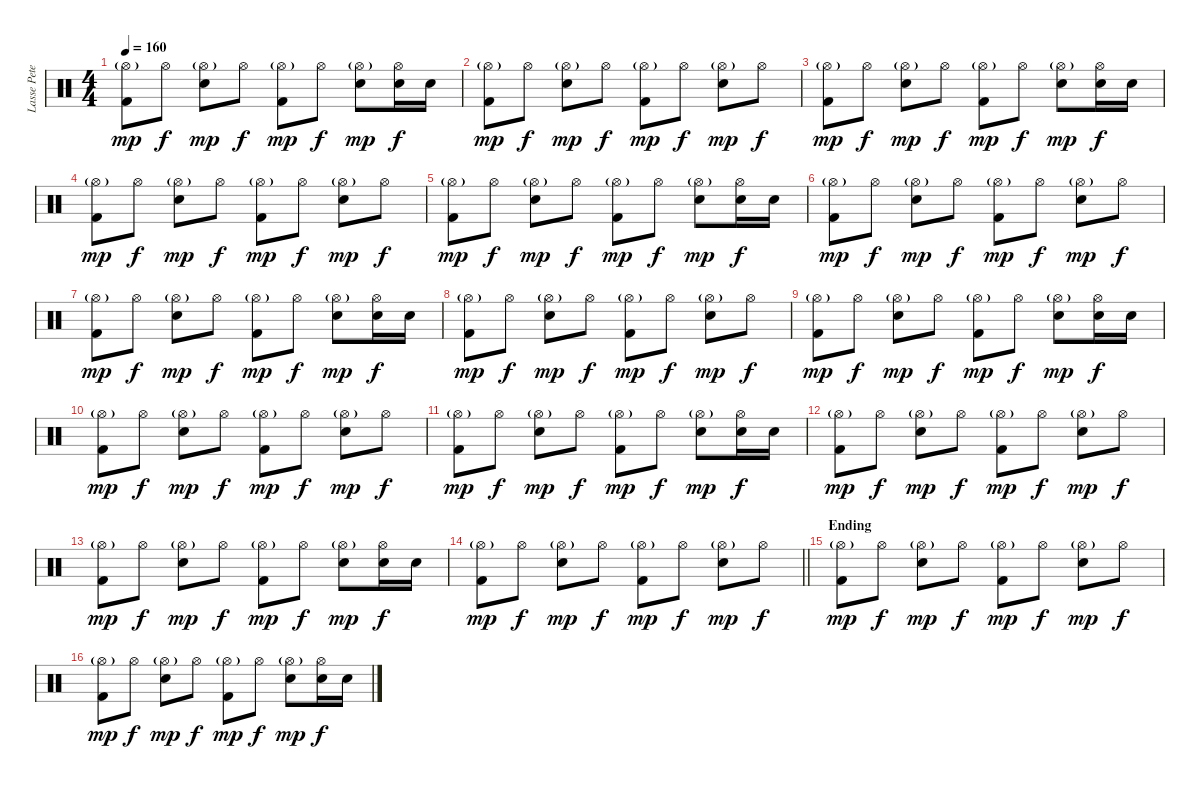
\track ("Lasse Petersen - Drums" "Lasse Pete") {instrument percussion}
\staff {score}
\articulation defaults
\ts (4 4)
\tempo 160
\clef neutral
\ks c
("Kick (hit) 2" "Hi-Hat (open)"{g}).8{dy mp} "Hi-Hat (open)".8{dy f} ("Electric Snare (hit)" "Hi-Hat (open)"{g}).8{dy mp} "Hi-Hat (open)".8{dy f} ("Kick (hit) 2" "Hi-Hat (open)"{g}).8{dy mp} "Hi-Hat (open)".8{dy f} ("Electric Snare (hit)" "Hi-Hat (open)"{g}).8{dy mp} ("Electric Snare (hit)" "Hi-Hat (open)").16{dy f} "Electric Snare (hit)".16 |
("Kick (hit) 2" "Hi-Hat (open)"{g}).8{dy mp} "Hi-Hat (open)".8{dy f} ("Electric Snare (hit)" "Hi-Hat (open)"{g}).8{dy mp} "Hi-Hat (open)".8{dy f} ("Kick (hit) 2" "Hi-Hat (open)"{g}).8{dy mp} "Hi-Hat (open)".8{dy f} ("Electric Snare (hit)" "Hi-Hat (open)"{g}).8{dy mp} "Hi-Hat (open)".8{dy f} |
("Kick (hit) 2" "Hi-Hat (open)"{g}).8{dy mp} "Hi-Hat (open)".8{dy f} ("Electric Snare (hit)" "Hi-Hat (open)"{g}).8{dy mp} "Hi-Hat (open)".8{dy f} ("Kick (hit) 2" "Hi-Hat (open)"{g}).8{dy mp} "Hi-Hat (open)".8{dy f} ("Electric Snare (hit)" "Hi-Hat (open)"{g}).8{dy mp} ("Electric Snare (hit)" "Hi-Hat (open)").16{dy f} "Electric Snare (hit)".16 |
("Kick (hit) 2" "Hi-Hat (open)"{g}).8{dy mp} "Hi-Hat (open)".8{dy f} ("Electric Snare (hit)" "Hi-Hat (open)"{g}).8{dy mp} "Hi-Hat (open)".8{dy f} ("Kick (hit) 2" "Hi-Hat (open)"{g}).8{dy mp} "Hi-Hat (open)".8{dy f} ("Electric Snare (hit)" "Hi-Hat (open)"{g}).8{dy mp} "Hi-Hat (open)".8{dy f} |
("Kick (hit) 2" "Hi-Hat (open)"{g}).8{dy mp} "Hi-Hat (open)".8{dy f} ("Electric Snare (hit)" "Hi-Hat (open)"{g}).8{dy mp} "Hi-Hat (open)".8{dy f} ("Kick (hit) 2" "Hi-Hat (open)"{g}).8{dy mp} "Hi-Hat (open)".8{dy f} ("Electric Snare (hit)" "Hi-Hat (open)"{g}).8{dy mp} ("Electric Snare (hit)" "Hi-Hat (open)").16{dy f} "Electric Snare (hit)".16 |
("Kick (hit) 2" "Hi-Hat (open)"{g}).8{dy mp} "Hi-Hat (open)".8{dy f} ("Electric Snare (hit)" "Hi-Hat (open)"{g}).8{dy mp} "Hi-Hat (open)".8{dy f} ("Kick (hit) 2" "Hi-Hat (open)"{g}).8{dy mp} "Hi-Hat (open)".8{dy f} ("Electric Snare (hit)" "Hi-Hat (open)"{g}).8{dy mp} "Hi-Hat (open)".8{dy f} |
("Kick (hit) 2" "Hi-Hat (open)"{g}).8{dy mp} "Hi-Hat (open)".8{dy f} ("Electric Snare (hit)" "Hi-Hat (open)"{g}).8{dy mp} "Hi-Hat (open)".8{dy f} ("Kick (hit) 2" "Hi-Hat (open)"{g}).8{dy mp} "Hi-Hat (open)".8{dy f} ("Electric Snare (hit)" "Hi-Hat (open)"{g}).8{dy mp} ("Electric Snare (hit)" "Hi-Hat (open)").16{dy f} "Electric Snare (hit)".16 |
("Kick (hit) 2" "Hi-Hat (open)"{g}).8{dy mp} "Hi-Hat (open)".8{dy f} ("Electric Snare (hit)" "Hi-Hat (open)"{g}).8{dy mp} "Hi-Hat (open)".8{dy f} ("Kick (hit) 2" "Hi-Hat (open)"{g}).8{dy mp} "Hi-Hat (open)".8{dy f} ("Electric Snare (hit)" "Hi-Hat (open)"{g}).8{dy mp} "Hi-Hat (open)".8{dy f} |
("Kick (hit) 2" "Hi-Hat (open)"{g}).8{dy mp} "Hi-Hat (open)".8{dy f} ("Electric Snare (hit)" "Hi-Hat (open)"{g}).8{dy mp} "Hi-Hat (open)".8{dy f} ("Kick (hit) 2" "Hi-Hat (open)"{g}).8{dy mp} "Hi-Hat (open)".8{dy f} ("Electric Snare (hit)" "Hi-Hat (open)"{g}).8{dy mp} ("Electric Snare (hit)" "Hi-Hat (open)").16{dy f} "Electric Snare (hit)".16 |
("Kick (hit) 2" "Hi-Hat (open)"{g}).8{dy mp} "Hi-Hat (open)".8{dy f} ("Electric Snare (hit)" "Hi-Hat (open)"{g}).8{dy mp} "Hi-Hat (open)".8{dy f} ("Kick (hit) 2" "Hi-Hat (open)"{g}).8{dy mp} "Hi-Hat (open)".8{dy f} ("Electric Snare (hit)" "Hi-Hat (open)"{g}).8{dy mp} "Hi-Hat (open)".8{dy f} |
("Kick (hit) 2" "Hi-Hat (open)"{g}).8{dy mp} "Hi-Hat (open)".8{dy f} ("Electric Snare (hit)" "Hi-Hat (open)"{g}).8{dy mp} "Hi-Hat (open)".8{dy f} ("Kick (hit) 2" "Hi-Hat (open)"{g}).8{dy mp} "Hi-Hat (open)".8{dy f} ("Electric Snare (hit)" "Hi-Hat (open)"{g}).8{dy mp} ("Electric Snare (hit)" "Hi-Hat (open)").16{dy f} "Electric Snare (hit)".16 |
("Kick (hit) 2" "Hi-Hat (open)"{g}).8{dy mp} "Hi-Hat (open)".8{dy f} ("Electric Snare (hit)" "Hi-Hat (open)"{g}).8{dy mp} "Hi-Hat (open)".8{dy f} ("Kick (hit) 2" "Hi-Hat (open)"{g}).8{dy mp} "Hi-Hat (open)".8{dy f} ("Electric Snare (hit)" "Hi-Hat (open)"{g}).8{dy mp} "Hi-Hat (open)".8{dy f} |
("Kick (hit) 2" "Hi-Hat (open)"{g}).8{dy mp} "Hi-Hat (open)".8{dy f} ("Electric Snare (hit)" "Hi-Hat (open)"{g}).8{dy mp} "Hi-Hat (open)".8{dy f} ("Kick (hit) 2" "Hi-Hat (open)"{g}).8{dy mp} "Hi-Hat (open)".8{dy f} ("Electric Snare (hit)" "Hi-Hat (open)"{g}).8{dy mp} ("Electric Snare (hit)" "Hi-Hat (open)").16{dy f} "Electric Snare (hit)".16 |
\barLineRight lightlight
("Kick (hit) 2" "Hi-Hat (open)"{g}).8{dy mp} "Hi-Hat (open)".8{dy f} ("Electric Snare (hit)" "Hi-Hat (open)"{g}).8{dy mp} "Hi-Hat (open)".8{dy f} ("Kick (hit) 2" "Hi-Hat (open)"{g}).8{dy mp} "Hi-Hat (open)".8{dy f} ("Electric Snare (hit)" "Hi-Hat (open)"{g}).8{dy mp} "Hi-Hat (open)".8{dy f} |
\section ("" "Ending")
("Kick (hit) 2" "Hi-Hat (open)"{g}).8{dy mp} "Hi-Hat (open)".8{dy f} ("Electric Snare (hit)" "Hi-Hat (open)"{g}).8{dy mp} "Hi-Hat (open)".8{dy f} ("Kick (hit) 2" "Hi-Hat (open)"{g}).8{dy mp} "Hi-Hat (open)".8{dy f} ("Electric Snare (hit)" "Hi-Hat (open)"{g}).8{dy mp} "Hi-Hat (open)".8{dy f} |
("Kick (hit) 2" "Hi-Hat (open)"{g}).8{dy mp} "Hi-Hat (open)".8{dy f} ("Electric Snare (hit)" "Hi-Hat (open)"{g}).8{dy mp} "Hi-Hat (open)".8{dy f} ("Kick (hit) 2" "Hi-Hat (open)"{g}).8{dy mp} "Hi-Hat (open)".8{dy f} ("Electric Snare (hit)" "Hi-Hat (open)"{g}).8{dy mp} ("Electric Snare (hit)" "Hi-Hat (open)").16{dy f} "Electric Snare (hit)".16
